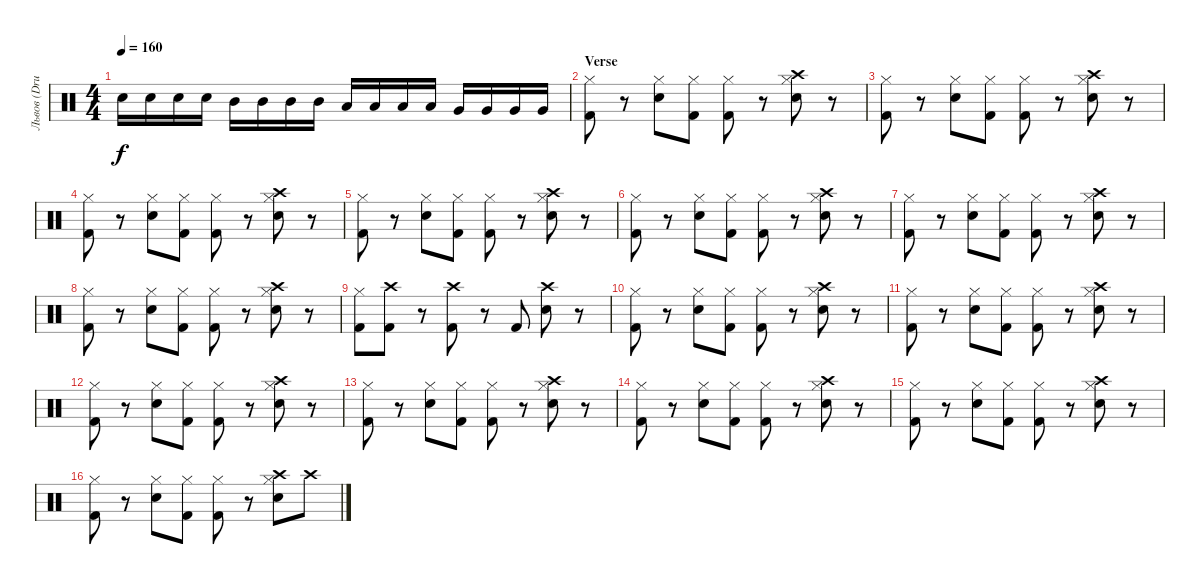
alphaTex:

\track ("Львов (Drums)" "Львов (Dru") {instrument percussion}
\staff {score}
\articulation defaults
\ts (4 4)
\tempo 160
\clef neutral
\ks c "Electric Snare (hit)".16{dy f} "Electric Snare (hit)".16 "Electric Snare (hit)".16 "Electric Snare (hit)".16 "Mid Tom (hit)".16 "Mid Tom (hit)".16 "Mid Tom (hit)".16 "Mid Tom (hit)".16 "Low Tom (hit)".16 "Low Tom (hit)".16 "Low Tom (hit)".16 "Low Tom (hit)".16 "Very Low Tom (hit)".16 "Very Low Tom (hit)".16 "Very Low Tom (hit)".16 "Very Low Tom (hit)".16
|
\section ("" "Verse")
("Kick (hit) 2" "Hi-Hat (closed)").8 r.8 ("Electric Snare (hit)" "Hi-Hat (closed)").8 ("Kick (hit) 2" "Hi-Hat (closed)").8 ("Kick (hit) 2" "Hi-Hat (closed)").8 r.8 ("Electric Snare (hit)" "Crash high (hit)" "Hi-Hat (closed)").8 r.8 |
("Kick (hit) 2" "Hi-Hat (closed)").8 r.8 ("Electric Snare (hit)" "Hi-Hat (closed)").8 ("Kick (hit) 2" "Hi-Hat (closed)").8 ("Kick (hit) 2" "Hi-Hat (closed)").8 r.8 ("Electric Snare (hit)" "Crash high (hit)" "Hi-Hat (closed)").8 r.8 |
("Kick (hit) 2" "Hi-Hat (closed)").8 r.8 ("Electric Snare (hit)" "Hi-Hat (closed)").8 ("Kick (hit) 2" "Hi-Hat (closed)").8 ("Kick (hit) 2" "Hi-Hat (closed)").8 r.8 ("Electric Snare (hit)" "Crash high (hit)" "Hi-Hat (closed)").8 r.8 |
("Kick (hit) 2" "Hi-Hat (closed)").8 r.8 ("Electric Snare (hit)" "Hi-Hat (closed)").8 ("Kick (hit) 2" "Hi-Hat (closed)").8 ("Kick (hit) 2" "Hi-Hat (closed)").8 r.8 ("Electric Snare (hit)" "Crash high (hit)" "Hi-Hat (closed)").8 r.8 |
("Kick (hit) 2" "Hi-Hat (closed)").8 r.8 ("Electric Snare (hit)" "Hi-Hat (closed)").8 ("Kick (hit) 2" "Hi-Hat (closed)").8 ("Kick (hit) 2" "Hi-Hat (closed)").8 r.8 ("Electric Snare (hit)" "Crash high (hit)" "Hi-Hat (closed)").8 r.8 |
("Kick (hit) 2" "Hi-Hat (closed)").8 r.8 ("Electric Snare (hit)" "Hi-Hat (closed)").8 ("Kick (hit) 2" "Hi-Hat (closed)").8 ("Kick (hit) 2" "Hi-Hat (closed)").8 r.8 ("Electric Snare (hit)" "Crash high (hit)" "Hi-Hat (closed)").8 r.8 |
("Kick (hit) 2" "Hi-Hat (closed)").8 r.8 ("Electric Snare (hit)" "Hi-Hat (closed)").8 ("Kick (hit) 2" "Hi-Hat (closed)").8 ("Kick (hit) 2" "Hi-Hat (closed)").8 r.8 ("Electric Snare (hit)" "Crash high (hit)" "Hi-Hat (closed)").8 r.8 |
("Kick (hit) 2" "Hi-Hat (closed)").8 ("Kick (hit) 2" "Crash high (hit)").8 r.8 ("Kick (hit) 2" "Crash high (hit)").8 r.8 "Kick (hit) 2".8 ("Electric Snare (hit)" "Crash high (hit)").8 r.8 |
("Kick (hit) 2" "Hi-Hat (closed)").8 r.8 ("Electric Snare (hit)" "Hi-Hat (closed)").8 ("Kick (hit) 2" "Hi-Hat (closed)").8 ("Kick (hit) 2" "Hi-Hat (closed)").8 r.8 ("Electric Snare (hit)" "Crash high (hit)" "Hi-Hat (closed)").8 r.8 |
("Kick (hit) 2" "Hi-Hat (closed)").8 r.8 ("Electric Snare (hit)" "Hi-Hat (closed)").8 ("Kick (hit) 2" "Hi-Hat (closed)").8 ("Kick (hit) 2" "Hi-Hat (closed)").8 r.8 ("Electric Snare (hit)" "Crash high (hit)" "Hi-Hat (closed)").8 r.8 |
("Kick (hit) 2" "Hi-Hat (closed)").8 r.8 ("Electric Snare (hit)" "Hi-Hat (closed)").8 ("Kick (hit) 2" "Hi-Hat (closed)").8 ("Kick (hit) 2" "Hi-Hat (closed)").8 r.8 ("Electric Snare (hit)" "Crash high (hit)" "Hi-Hat (closed)").8 r.8 |
("Kick (hit) 2" "Hi-Hat (closed)").8 r.8 ("Electric Snare (hit)" "Hi-Hat (closed)").8 ("Kick (hit) 2" "Hi-Hat (closed)").8 ("Kick (hit) 2" "Hi-Hat (closed)").8 r.8 ("Electric Snare (hit)" "Crash high (hit)" "Hi-Hat (closed)").8 r.8 |
("Kick (hit) 2" "Hi-Hat (closed)").8 r.8 ("Electric Snare (hit)" "Hi-Hat (closed)").8 ("Kick (hit) 2" "Hi-Hat (closed)").8 ("Kick (hit) 2" "Hi-Hat (closed)").8 r.8 ("Electric Snare (hit)" "Crash high (hit)" "Hi-Hat (closed)").8 r.8 |
("Kick (hit) 2" "Hi-Hat (closed)").8 r.8 ("Electric Snare (hit)" "Hi-Hat (closed)").8 ("Kick (hit) 2" "Hi-Hat (closed)").8 ("Kick (hit) 2" "Hi-Hat (closed)").8 r.8 ("Electric Snare (hit)" "Crash high (hit)" "Hi-Hat (closed)").8 r.8 |
("Kick (hit) 2" "Hi-Hat (closed)").8 r.8 ("Electric Snare (hit)" "Hi-Hat (closed)").8 ("Kick (hit) 2" "Hi-Hat (closed)").8 ("Kick (hit) 2" "Hi-Hat (closed)").8 r.8 ("Electric Snare (hit)" "Crash high (hit)" "Hi-Hat (closed)").8 "Crash high (hit)".8
